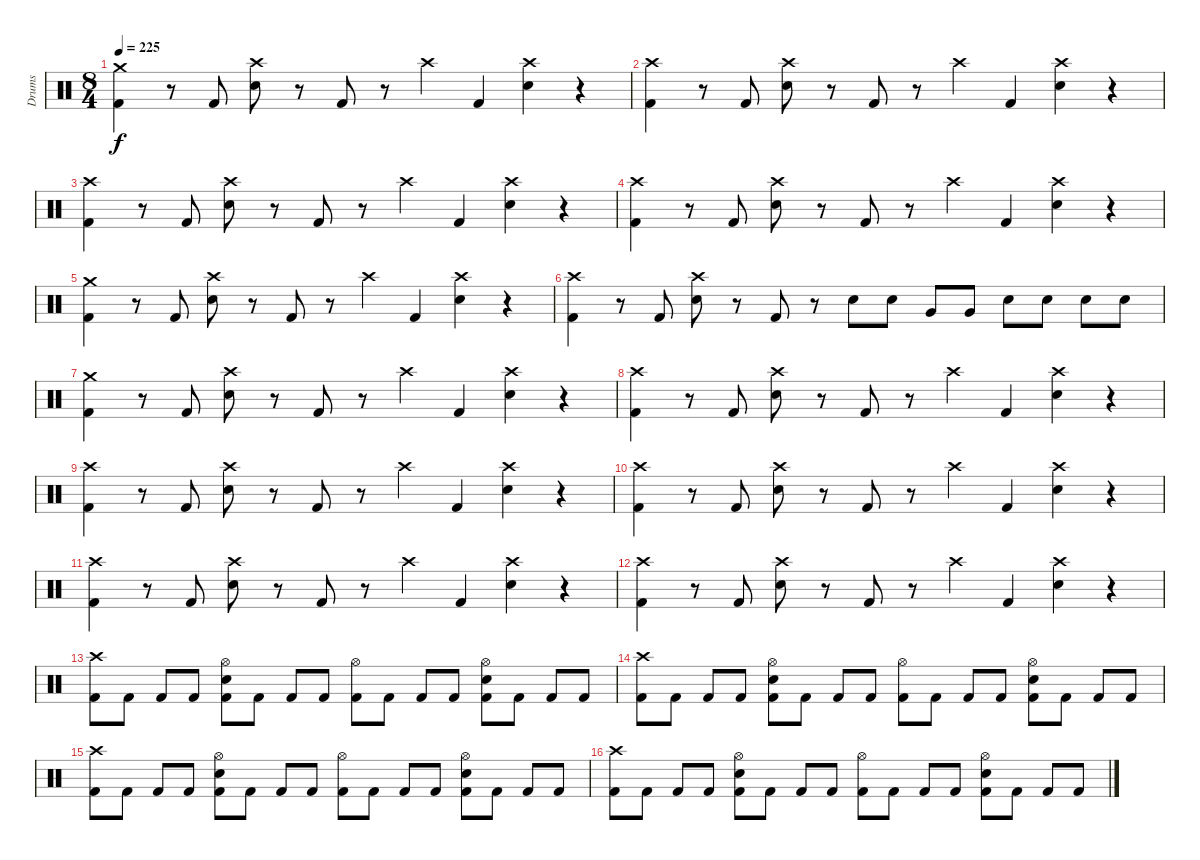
\track ("Drums" "Drums") {instrument percussion}
\staff {score}
\articulation defaults
\ts (8 4)
\tempo 225
\clef neutral
\ks c
("Crash medium (hit)" "Kick (hit) 2").4{dy f} r.8 "Kick (hit) 2".8 ("Crash high (hit)" "Electric Snare (hit)").8 r.8 "Kick (hit) 2".8 r.8 "Crash high (hit)".4 "Kick (hit) 2".4 ("Crash high (hit)" "Electric Snare (hit)").4 r.4 |
("Crash high (hit)" "Kick (hit) 2").4 r.8 "Kick (hit) 2".8 ("Crash high (hit)" "Electric Snare (hit)").8 r.8 "Kick (hit) 2".8 r.8 "Crash high (hit)".4 "Kick (hit) 2".4 ("Crash high (hit)" "Electric Snare (hit)").4 r.4 |
("Crash high (hit)" "Kick (hit) 2").4 r.8 "Kick (hit) 2".8 ("Crash high (hit)" "Electric Snare (hit)").8 r.8 "Kick (hit) 2".8 r.8 "Crash high (hit)".4 "Kick (hit) 2".4 ("Crash high (hit)" "Electric Snare (hit)").4 r.4 |
("Crash high (hit)" "Kick (hit) 2").4 r.8 "Kick (hit) 2".8 ("Crash high (hit)" "Electric Snare (hit)").8 r.8 "Kick (hit) 2".8 r.8 "Crash high (hit)".4 "Kick (hit) 2".4 ("Crash high (hit)" "Electric Snare (hit)").4 r.4 |
("Crash medium (hit)" "Kick (hit) 2").4 r.8 "Kick (hit) 2".8 ("Crash high (hit)" "Electric Snare (hit)").8 r.8 "Kick (hit) 2".8 r.8 "Crash high (hit)".4 "Kick (hit) 2".4 ("Crash high (hit)" "Electric Snare (hit)").4 r.4 |
("Crash high (hit)" "Kick (hit) 2").4 r.8 "Kick (hit) 2".8 ("Crash high (hit)" "Electric Snare (hit)").8 r.8 "Kick (hit) 2".8 r.8 "Electric Snare (hit)".8 "Electric Snare (hit)".8 "Very Low Tom (hit)".8 "Very Low Tom (hit)".8 "Electric Snare (hit)".8 "Electric Snare (hit)".8 "Electric Snare (hit)".8 "Electric Snare (hit)".8 |
("Crash medium (hit)" "Kick (hit) 2").4 r.8 "Kick (hit) 2".8 ("Crash high (hit)" "Electric Snare (hit)").8 r.8 "Kick (hit) 2".8 r.8 "Crash high (hit)".4 "Kick (hit) 2".4 ("Crash high (hit)" "Electric Snare (hit)").4 r.4 |
("Crash high (hit)" "Kick (hit) 2").4 r.8 "Kick (hit) 2".8 ("Crash high (hit)" "Electric Snare (hit)").8 r.8 "Kick (hit) 2".8 r.8 "Crash high (hit)".4 "Kick (hit) 2".4 ("Crash high (hit)" "Electric Snare (hit)").4 r.4 |
("Crash high (hit)" "Kick (hit) 2").4 r.8 "Kick (hit) 2".8 ("Crash high (hit)" "Electric Snare (hit)").8 r.8 "Kick (hit) 2".8 r.8 "Crash high (hit)".4 "Kick (hit) 2".4 ("Crash high (hit)" "Electric Snare (hit)").4 r.4 |
("Crash high (hit)" "Kick (hit) 2").4 r.8 "Kick (hit) 2".8 ("Crash high (hit)" "Electric Snare (hit)").8 r.8 "Kick (hit) 2".8 r.8 "Crash high (hit)".4 "Kick (hit) 2".4 ("Crash high (hit)" "Electric Snare (hit)").4 r.4 |
("Crash high (hit)" "Kick (hit) 2").4 r.8 "Kick (hit) 2".8 ("Crash high (hit)" "Electric Snare (hit)").8 r.8 "Kick (hit) 2".8 r.8 "Crash high (hit)".4 "Kick (hit) 2".4 ("Crash high (hit)" "Electric Snare (hit)").4 r.4 |
("Crash high (hit)" "Kick (hit) 2").4 r.8 "Kick (hit) 2".8 ("Crash high (hit)" "Electric Snare (hit)").8 r.8 "Kick (hit) 2".8 r.8 "Crash high (hit)".4 "Kick (hit) 2".4 ("Crash high (hit)" "Electric Snare (hit)").4 r.4 |
("Crash high (hit)" "Kick (hit) 2").8 "Kick (hit) 2".8 "Kick (hit) 2".8 "Kick (hit) 2".8 ("Hi-Hat (open)" "Electric Snare (hit)" "Kick (hit) 2").8 "Kick (hit) 2".8 "Kick (hit) 2".8 "Kick (hit) 2".8 ("Hi-Hat (open)" "Kick (hit) 2").8 "Kick (hit) 2".8 "Kick (hit) 2".8 "Kick (hit) 2".8 ("Hi-Hat (open)" "Electric Snare (hit)" "Kick (hit) 2").8 "Kick (hit) 2".8 "Kick (hit) 2".8 "Kick (hit) 2".8 |
("Crash high (hit)" "Kick (hit) 2").8 "Kick (hit) 2".8 "Kick (hit) 2".8 "Kick (hit) 2".8 ("Hi-Hat (open)" "Electric Snare (hit)" "Kick (hit) 2").8 "Kick (hit) 2".8 "Kick (hit) 2".8 "Kick (hit) 2".8 ("Hi-Hat (open)" "Kick (hit) 2").8 "Kick (hit) 2".8 "Kick (hit) 2".8 "Kick (hit) 2".8 ("Hi-Hat (open)" "Electric Snare (hit)" "Kick (hit) 2").8 "Kick (hit) 2".8 "Kick (hit) 2".8 "Kick (hit) 2".8 |
("Crash high (hit)" "Kick (hit) 2").8 "Kick (hit) 2".8 "Kick (hit) 2".8 "Kick (hit) 2".8 ("Hi-Hat (open)" "Electric Snare (hit)" "Kick (hit) 2").8 "Kick (hit) 2".8 "Kick (hit) 2".8 "Kick (hit) 2".8 ("Hi-Hat (open)" "Kick (hit) 2").8 "Kick (hit) 2".8 "Kick (hit) 2".8 "Kick (hit) 2".8 ("Hi-Hat (open)" "Electric Snare (hit)" "Kick (hit) 2").8 "Kick (hit) 2".8 "Kick (hit) 2".8 "Kick (hit) 2".8 |
("Crash high (hit)" "Kick (hit) 2").8 "Kick (hit) 2".8 "Kick (hit) 2".8 "Kick (hit) 2".8 ("Hi-Hat (open)" "Electric Snare (hit)" "Kick (hit) 2").8 "Kick (hit) 2".8 "Kick (hit) 2".8 "Kick (hit) 2".8 ("Hi-Hat (open)" "Kick (hit) 2").8 "Kick (hit) 2".8 "Kick (hit) 2".8 "Kick (hit) 2".8 ("Hi-Hat (open)" "Electric Snare (hit)" "Kick (hit) 2").8 "Kick (hit) 2".8 "Kick (hit) 2".8 "Kick (hit) 2".8
